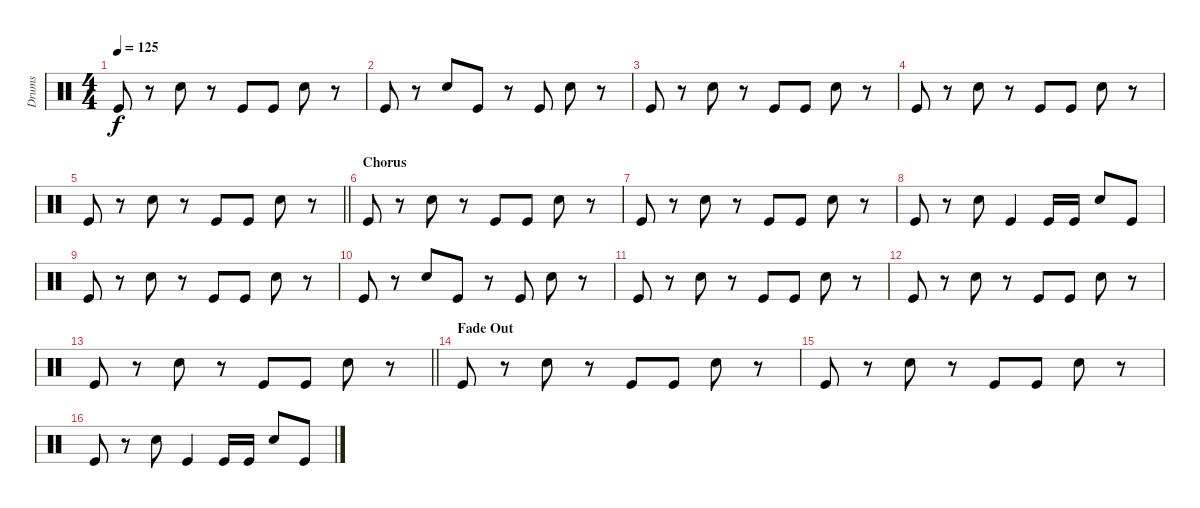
\track ("Drums" "Drums") {instrument percussion}
\staff {score}
\articulation defaults
\ts (4 4)
\tempo 125
\clef neutral
\ks c "Kick (hit)".8{dy f}
r.8 "Snare (hit) 2".8 r.8 "Kick (hit)".8 "Kick (hit)".8 "Snare (hit) 2".8 r.8 |
"Kick (hit)".8 r.8 "Snare (hit) 2".8 "Kick (hit)".8 r.8 "Kick (hit)".8 "Snare (hit) 2".8 r.8 |
"Kick (hit)".8 r.8 "Snare (hit) 2".8 r.8 "Kick (hit)".8 "Kick (hit)".8 "Snare (hit) 2".8 r.8 |
"Kick (hit)".8 r.8 "Snare (hit) 2".8 r.8 "Kick (hit)".8 "Kick (hit)".8 "Snare (hit) 2".8 r.8 |
\barLineRight lightlight "Kick (hit)".8
r.8 "Snare (hit) 2".8 r.8 "Kick (hit)".8 "Kick (hit)".8 "Snare (hit) 2".8 r.8 |
\section ("" "Chorus")
"Kick (hit)".8 r.8 "Snare (hit) 2".8 r.8 "Kick (hit)".8 "Kick (hit)".8 "Snare (hit) 2".8 r.8 |
"Kick (hit)".8 r.8 "Snare (hit) 2".8 r.8 "Kick (hit)".8 "Kick (hit)".8 "Snare (hit) 2".8 r.8 |
"Kick (hit)".8 r.8 "Snare (hit) 2".8 "Kick (hit)".4 "Kick (hit)".16 "Kick (hit)".16 "Snare (hit) 2".8 "Kick (hit)".8 |
"Kick (hit)".8 r.8 "Snare (hit) 2".8 r.8 "Kick (hit)".8 "Kick (hit)".8 "Snare (hit) 2".8 r.8 |
"Kick (hit)".8 r.8 "Snare (hit) 2".8 "Kick (hit)".8 r.8 "Kick (hit)".8 "Snare (hit) 2".8 r.8 |
"Kick (hit)".8 r.8 "Snare (hit) 2".8 r.8 "Kick (hit)".8 "Kick (hit)".8 "Snare (hit) 2".8 r.8 |
"Kick (hit)".8 r.8 "Snare (hit) 2".8 r.8 "Kick (hit)".8 "Kick (hit)".8 "Snare (hit) 2".8 r.8 |
\barLineRight lightlight "Kick (hit)".8
r.8 "Snare (hit) 2".8 r.8 "Kick (hit)".8 "Kick (hit)".8 "Snare (hit) 2".8 r.8 |
\section ("" "Fade Out")
"Kick (hit)".8 r.8 "Snare (hit) 2".8 r.8 "Kick (hit)".8 "Kick (hit)".8 "Snare (hit) 2".8 r.8 |
"Kick (hit)".8 r.8 "Snare (hit) 2".8 r.8 "Kick (hit)".8 "Kick (hit)".8 "Snare (hit) 2".8 r.8 |
"Kick (hit)".8 r.8 "Snare (hit) 2".8 "Kick (hit)".4 "Kick (hit)".16 "Kick (hit)".16 "Snare (hit) 2".8 "Kick (hit)".8
